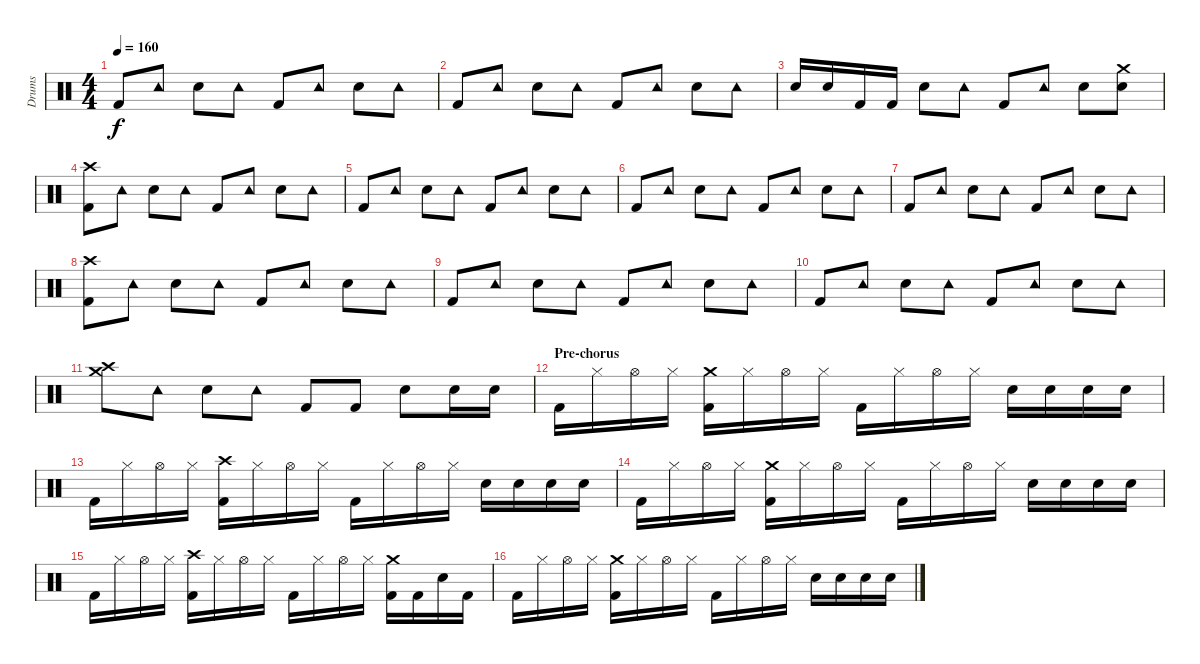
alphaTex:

\track ("Drums" "Drums") {instrument percussion}
\staff {score}
\articulation defaults
\ts (4 4)
\tempo 160
\clef neutral
\ks c "Kick (hit) 2".8{dy f} "Tambourine (hit)".8 "Snare (hit) 2".8 "Tambourine (hit)".8 "Kick (hit) 2".8 "Tambourine (hit)".8 "Snare (hit) 2".8 "Tambourine (hit)".8
|
"Kick (hit) 2".8 "Tambourine (hit)".8 "Snare (hit) 2".8 "Tambourine (hit)".8 "Kick (hit) 2".8 "Tambourine (hit)".8 "Snare (hit) 2".8 "Tambourine (hit)".8 |
"Snare (hit) 2".16 "Snare (hit) 2".16 "Kick (hit) 2".16 "Kick (hit) 2".16 "Snare (hit) 2".8 "Tambourine (hit)".8 "Kick (hit) 2".8 "Tambourine (hit)".8 "Snare (hit) 2".8 ("Crash medium (hit)" "Snare (hit) 2").8 |
("Crash high (hit)" "Kick (hit) 2").8 "Tambourine (hit)".8 "Snare (hit) 2".8 "Tambourine (hit)".8 "Kick (hit) 2".8 "Tambourine (hit)".8 "Snare (hit) 2".8 "Tambourine (hit)".8 |
"Kick (hit) 2".8 "Tambourine (hit)".8 "Snare (hit) 2".8 "Tambourine (hit)".8 "Kick (hit) 2".8 "Tambourine (hit)".8 "Snare (hit) 2".8 "Tambourine (hit)".8 |
"Kick (hit) 2".8 "Tambourine (hit)".8 "Snare (hit) 2".8 "Tambourine (hit)".8 "Kick (hit) 2".8 "Tambourine (hit)".8 "Snare (hit) 2".8 "Tambourine (hit)".8 |
"Kick (hit) 2".8 "Tambourine (hit)".8 "Snare (hit) 2".8 "Tambourine (hit)".8 "Kick (hit) 2".8 "Tambourine (hit)".8 "Snare (hit) 2".8 "Tambourine (hit)".8 |
("Crash high (hit)" "Kick (hit) 2").8 "Tambourine (hit)".8 "Snare (hit) 2".8 "Tambourine (hit)".8 "Kick (hit) 2".8 "Tambourine (hit)".8 "Snare (hit) 2".8 "Tambourine (hit)".8 |
"Kick (hit) 2".8 "Tambourine (hit)".8 "Snare (hit) 2".8 "Tambourine (hit)".8 "Kick (hit) 2".8 "Tambourine (hit)".8 "Snare (hit) 2".8 "Tambourine (hit)".8 |
"Kick (hit) 2".8 "Tambourine (hit)".8 "Snare (hit) 2".8 "Tambourine (hit)".8 "Kick (hit) 2".8 "Tambourine (hit)".8 "Snare (hit) 2".8 "Tambourine (hit)".8 |
("Crash medium (hit)" "Crash high (hit)").8 "Tambourine (hit)".8 "Snare (hit) 2".8 "Tambourine (hit)".8 "Kick (hit) 2".8 "Kick (hit) 2".8 "Snare (hit) 2".8 "Snare (hit) 2".16 "Snare (hit) 2".16 |
\section ("" "Pre-chorus")
"Kick (hit) 2".16 "Hi-Hat (closed)".16 "Hi-Hat (open)".16 "Hi-Hat (closed)".16 ("Crash medium (hit)" "Kick (hit) 2").16 "Hi-Hat (closed)".16 "Hi-Hat (open)".16 "Hi-Hat (closed)".16 "Kick (hit) 2".16 "Hi-Hat (closed)".16 "Hi-Hat (open)".16 "Hi-Hat (closed)".16 "Snare (hit) 2".16 "Snare (hit) 2".16 "Snare (hit) 2".16 "Snare (hit) 2".16 |
"Kick (hit) 2".16 "Hi-Hat (closed)".16 "Hi-Hat (open)".16 "Hi-Hat (closed)".16 ("Crash high (hit)" "Kick (hit) 2").16 "Hi-Hat (closed)".16 "Hi-Hat (open)".16 "Hi-Hat (closed)".16 "Kick (hit) 2".16 "Hi-Hat (closed)".16 "Hi-Hat (open)".16 "Hi-Hat (closed)".16 "Snare (hit) 2".16 "Snare (hit) 2".16 "Snare (hit) 2".16 "Snare (hit) 2".16 |
"Kick (hit) 2".16 "Hi-Hat (closed)".16 "Hi-Hat (open)".16 "Hi-Hat (closed)".16 ("Crash medium (hit)" "Kick (hit) 2").16 "Hi-Hat (closed)".16 "Hi-Hat (open)".16 "Hi-Hat (closed)".16 "Kick (hit) 2".16 "Hi-Hat (closed)".16 "Hi-Hat (open)".16 "Hi-Hat (closed)".16 "Snare (hit) 2".16 "Snare (hit) 2".16 "Snare (hit) 2".16 "Snare (hit) 2".16 |
"Kick (hit) 2".16 "Hi-Hat (closed)".16 "Hi-Hat (open)".16 "Hi-Hat (closed)".16 ("Crash high (hit)" "Kick (hit) 2").16 "Hi-Hat (closed)".16 "Hi-Hat (open)".16 "Hi-Hat (closed)".16 "Kick (hit) 2".16 "Hi-Hat (closed)".16 "Hi-Hat (open)".16 "Hi-Hat (closed)".16 ("Crash medium (hit)" "Kick (hit) 2").16 "Kick (hit) 2".16 "Snare (hit) 2".16 "Kick (hit) 2".16 |
"Kick (hit) 2".16 "Hi-Hat (closed)".16 "Hi-Hat (open)".16 "Hi-Hat (closed)".16 ("Crash medium (hit)" "Kick (hit) 2").16 "Hi-Hat (closed)".16 "Hi-Hat (open)".16 "Hi-Hat (closed)".16 "Kick (hit) 2".16 "Hi-Hat (closed)".16 "Hi-Hat (open)".16 "Hi-Hat (closed)".16 "Snare (hit) 2".16 "Snare (hit) 2".16 "Snare (hit) 2".16 "Snare (hit) 2".16
